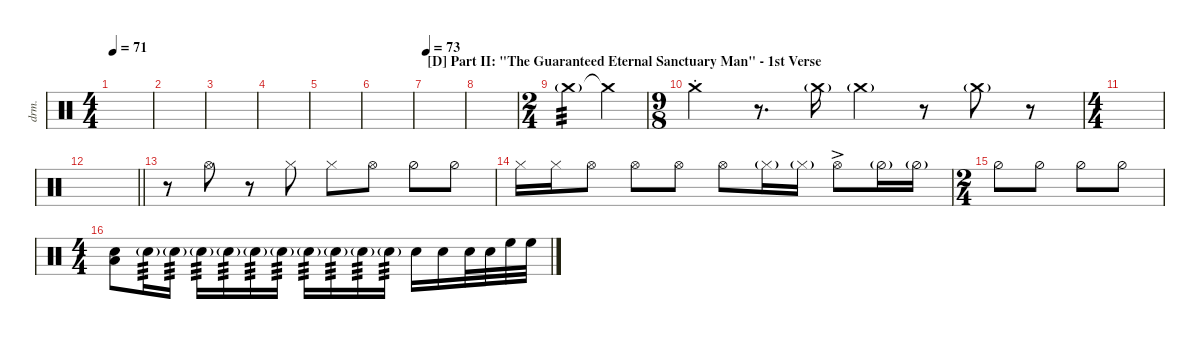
\defaultSystemsLayout 4
\hideDynamics
\bracketExtendMode nobrackets
\track ("Drums" "drm.") {instrument percussion}
\staff {score}
\articulation defaults
\ts (4 4)
\tempo 71
\clef neutral
\ks c
|
|
|
|
|
|
\section ("D" "Part II: \"The Guaranteed Eternal Sanctuary Man\" - 1st Verse")
\tempo 73
|
|
\ts (2 4)
\beaming (8 2 2)
"Crash medium (hit)"{g}.4{tp 3} "Crash medium (hit)"{t}.4 |
\ts (9 8)
\beaming (8 3 3 3)
"Crash medium (choke)".4 r.8{d} "Crash medium (hit)"{g}.16 "Crash medium (hit)"{g}.4 r.8 "Crash medium (hit)"{g}.8 r.8 |
\ts (4 4)
\beaming (8 2 2 2 2)
|
\barLineRight lightlight
|
r.8 "Hi-Hat (open)".8 r.8 "Hi-Hat (closed)".8 "Hi-Hat (closed)".8 "Hi-Hat (open)".8 "Hi-Hat (half)".8 "Hi-Hat (half)".8 |
"Hi-Hat (closed)".16 "Hi-Hat (closed)".16 "Hi-Hat (open)".8 "Hi-Hat (open)".8 "Hi-Hat (open)".8 "Hi-Hat (open)".8 "Hi-Hat (closed)"{g}.16 "Hi-Hat (closed)"{g}.16 "Hi-Hat (open)"{ac}.8 "Hi-Hat (half)"{g}.16 "Hi-Hat (half)"{g}.16 |
\ts (2 4)
\beaming (8 2 2)
"Hi-Hat (half)".8 "Hi-Hat (half)".8 "Hi-Hat (half)".8 "Hi-Hat (half)".8 |
\ts (4 4)
\beaming (8 2 2 2 2)
("Snare (hit) 2" "Low Tom (hit)").8 "Snare (hit) 2"{g}.16{tp 3} "Snare (hit) 2"{g}.16{tp 3} "Snare (hit) 2"{g}.16{tp 3} "Snare (hit) 2"{g}.16{tp 3} "Snare (hit) 2"{g}.16{tp 3} "Snare (hit) 2"{g}.16{tp 3} "Snare (hit) 2"{g}.16{tp 3} "Snare (hit) 2"{g}.16{tp 3} "Snare (hit) 2"{g}.16{tp 3} "Snare (hit) 2"{g}.16{tp 3} "Snare (hit) 2".16 "Snare (hit) 2".16 "Snare (hit) 2".32 "Snare (hit) 2".32 "High Floor Tom (hit)".32 "High Floor Tom (hit)".32
